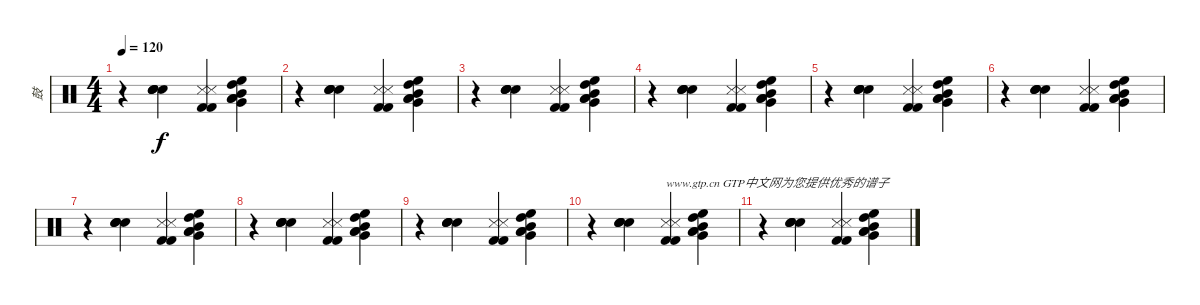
\track ("鼓" "鼓") {instrument percussion}
\staff {score}
\articulation defaults
\ts (4 4)
\tempo 120
\clef neutral
\ks c
r.4{dy f} ("Hand Clap (hit)" "Hand Clap (hit)" "Hand Clap (hit)" "Hand Clap (hit)").4 ("Snare (side stick) 3" "Kick (hit) 2" "Kick (hit) 2" "Snare (side stick) 3").4 ("High Floor Tom (hit)" "High Tom (hit)" "Mid Tom (hit)" "Low Tom (hit)" "Very Low Tom (hit)" "Low Floor Tom (hit)").4 |
r.4 ("Hand Clap (hit)" "Hand Clap (hit)" "Hand Clap (hit)" "Hand Clap (hit)").4 ("Snare (side stick) 3" "Kick (hit) 2" "Kick (hit) 2" "Snare (side stick) 3").4 ("High Floor Tom (hit)" "High Tom (hit)" "Mid Tom (hit)" "Low Tom (hit)" "Very Low Tom (hit)" "Low Floor Tom (hit)").4 |
r.4 ("Hand Clap (hit)" "Hand Clap (hit)" "Hand Clap (hit)" "Hand Clap (hit)").4 ("Snare (side stick) 3" "Kick (hit) 2" "Kick (hit) 2" "Snare (side stick) 3").4 ("High Floor Tom (hit)" "High Tom (hit)" "Mid Tom (hit)" "Low Tom (hit)" "Very Low Tom (hit)" "Low Floor Tom (hit)").4 |
r.4 ("Hand Clap (hit)" "Hand Clap (hit)" "Hand Clap (hit)" "Hand Clap (hit)").4 ("Snare (side stick) 3" "Kick (hit) 2" "Kick (hit) 2" "Snare (side stick) 3").4 ("High Floor Tom (hit)" "High Tom (hit)" "Mid Tom (hit)" "Low Tom (hit)" "Very Low Tom (hit)" "Low Floor Tom (hit)").4 |
r.4 ("Hand Clap (hit)" "Hand Clap (hit)" "Hand Clap (hit)" "Hand Clap (hit)").4 ("Snare (side stick) 3" "Kick (hit) 2" "Kick (hit) 2" "Snare (side stick) 3").4 ("High Floor Tom (hit)" "High Tom (hit)" "Mid Tom (hit)" "Low Tom (hit)" "Very Low Tom (hit)" "Low Floor Tom (hit)").4 |
r.4 ("Hand Clap (hit)" "Hand Clap (hit)" "Hand Clap (hit)" "Hand Clap (hit)").4 ("Snare (side stick) 3" "Kick (hit) 2" "Kick (hit) 2" "Snare (side stick) 3").4 ("High Floor Tom (hit)" "High Tom (hit)" "Mid Tom (hit)" "Low Tom (hit)" "Very Low Tom (hit)" "Low Floor Tom (hit)").4 |
r.4 ("Hand Clap (hit)" "Hand Clap (hit)" "Hand Clap (hit)" "Hand Clap (hit)").4 ("Snare (side stick) 3" "Kick (hit) 2" "Kick (hit) 2" "Snare (side stick) 3").4 ("High Floor Tom (hit)" "High Tom (hit)" "Mid Tom (hit)" "Low Tom (hit)" "Very Low Tom (hit)" "Low Floor Tom (hit)").4 |
r.4 ("Hand Clap (hit)" "Hand Clap (hit)" "Hand Clap (hit)" "Hand Clap (hit)").4 ("Snare (side stick) 3" "Kick (hit) 2" "Kick (hit) 2" "Snare (side stick) 3").4 ("High Floor Tom (hit)" "High Tom (hit)" "Mid Tom (hit)" "Low Tom (hit)" "Very Low Tom (hit)" "Low Floor Tom (hit)").4 |
r.4 ("Hand Clap (hit)" "Hand Clap (hit)" "Hand Clap (hit)" "Hand Clap (hit)").4 ("Snare (side stick) 3" "Kick (hit) 2" "Kick (hit) 2" "Snare (side stick) 3").4 ("High Floor Tom (hit)" "High Tom (hit)" "Mid Tom (hit)" "Low Tom (hit)" "Very Low Tom (hit)" "Low Floor Tom (hit)").4 |
r.4 ("Hand Clap (hit)" "Hand Clap (hit)" "Hand Clap (hit)" "Hand Clap (hit)").4 ("Snare (side stick) 3" "Kick (hit) 2" "Kick (hit) 2" "Snare (side stick) 3").4{txt "www.gtp.cn GTP中文网为您提供优秀的谱子"} ("High Floor Tom (hit)" "High Tom (hit)" "Mid Tom (hit)" "Low Tom (hit)" "Very Low Tom (hit)" "Low Floor Tom (hit)").4 |
r.4 ("Hand Clap (hit)" "Hand Clap (hit)" "Hand Clap (hit)" "Hand Clap (hit)").4 ("Snare (side stick) 3" "Kick (hit) 2" "Kick (hit) 2" "Snare (side stick) 3").4 ("High Floor Tom (hit)" "High Tom (hit)" "Mid Tom (hit)" "Low Tom (hit)" "Very Low Tom (hit)" "Low Floor Tom (hit)").4
